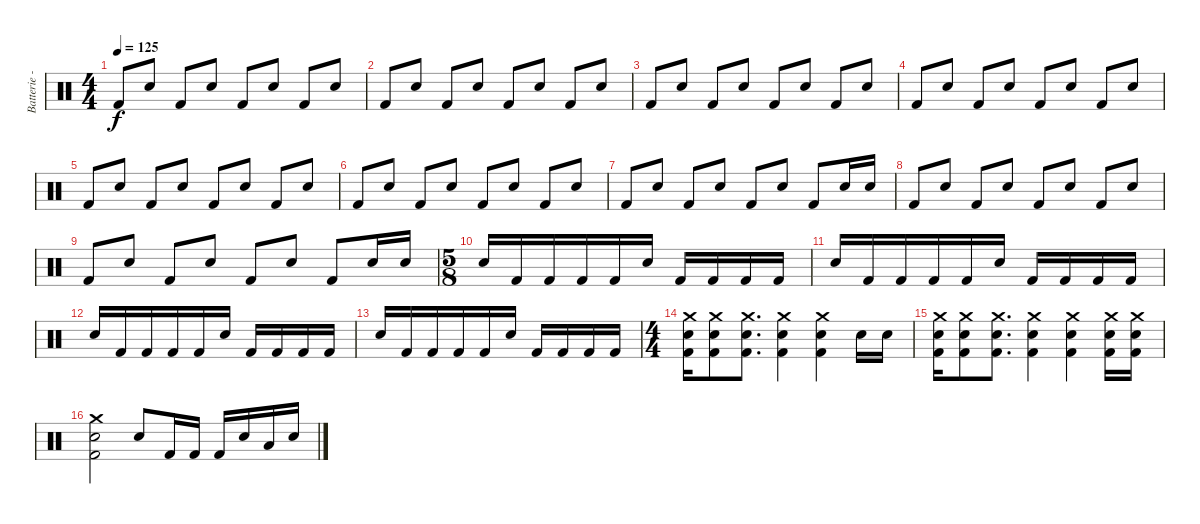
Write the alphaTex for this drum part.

\track ("Batterie - Shane Gaalaas" "Batterie -") {instrument percussion}
\staff {score}
\articulation defaults
\ts (4 4)
\tempo 125
\clef neutral
\ks c "Kick (hit) 2".8{dy f} "Electric Snare (hit)".8 "Kick (hit) 2".8 "Electric Snare (hit)".8 "Kick (hit) 2".8 "Electric Snare (hit)".8 "Kick (hit) 2".8 "Electric Snare (hit)".8
|
"Kick (hit) 2".8 "Electric Snare (hit)".8 "Kick (hit) 2".8 "Electric Snare (hit)".8 "Kick (hit) 2".8 "Electric Snare (hit)".8 "Kick (hit) 2".8 "Electric Snare (hit)".8 |
"Kick (hit) 2".8 "Electric Snare (hit)".8 "Kick (hit) 2".8 "Electric Snare (hit)".8 "Kick (hit) 2".8 "Electric Snare (hit)".8 "Kick (hit) 2".8 "Electric Snare (hit)".8 |
"Kick (hit) 2".8 "Electric Snare (hit)".8 "Kick (hit) 2".8 "Electric Snare (hit)".8 "Kick (hit) 2".8 "Electric Snare (hit)".8 "Kick (hit) 2".8 "Electric Snare (hit)".8 |
"Kick (hit) 2".8 "Electric Snare (hit)".8 "Kick (hit) 2".8 "Electric Snare (hit)".8 "Kick (hit) 2".8 "Electric Snare (hit)".8 "Kick (hit) 2".8 "Electric Snare (hit)".8 |
"Kick (hit) 2".8 "Electric Snare (hit)".8 "Kick (hit) 2".8 "Electric Snare (hit)".8 "Kick (hit) 2".8 "Electric Snare (hit)".8 "Kick (hit) 2".8 "Electric Snare (hit)".8 |
"Kick (hit) 2".8 "Electric Snare (hit)".8 "Kick (hit) 2".8 "Electric Snare (hit)".8 "Kick (hit) 2".8 "Electric Snare (hit)".8 "Kick (hit) 2".8 "Electric Snare (hit)".16 "Electric Snare (hit)".16 |
"Kick (hit) 2".8 "Electric Snare (hit)".8 "Kick (hit) 2".8 "Electric Snare (hit)".8 "Kick (hit) 2".8 "Electric Snare (hit)".8 "Kick (hit) 2".8 "Electric Snare (hit)".8 |
"Kick (hit) 2".8 "Electric Snare (hit)".8 "Kick (hit) 2".8 "Electric Snare (hit)".8 "Kick (hit) 2".8 "Electric Snare (hit)".8 "Kick (hit) 2".8 "Electric Snare (hit)".16 "Electric Snare (hit)".16 |
\ts (5 8)
"Electric Snare (hit)".16 "Kick (hit) 2".16 "Kick (hit) 2".16 "Kick (hit) 2".16 "Kick (hit) 2".16 "Electric Snare (hit)".16 "Kick (hit) 2".16 "Kick (hit) 2".16 "Kick (hit) 2".16 "Kick (hit) 2".16 |
"Electric Snare (hit)".16 "Kick (hit) 2".16 "Kick (hit) 2".16 "Kick (hit) 2".16 "Kick (hit) 2".16 "Electric Snare (hit)".16 "Kick (hit) 2".16 "Kick (hit) 2".16 "Kick (hit) 2".16 "Kick (hit) 2".16 |
"Electric Snare (hit)".16 "Kick (hit) 2".16 "Kick (hit) 2".16 "Kick (hit) 2".16 "Kick (hit) 2".16 "Electric Snare (hit)".16 "Kick (hit) 2".16 "Kick (hit) 2".16 "Kick (hit) 2".16 "Kick (hit) 2".16 |
"Electric Snare (hit)".16 "Kick (hit) 2".16 "Kick (hit) 2".16 "Kick (hit) 2".16 "Kick (hit) 2".16 "Electric Snare (hit)".16 "Kick (hit) 2".16 "Kick (hit) 2".16 "Kick (hit) 2".16 "Kick (hit) 2".16 |
\ts (4 4)
("Crash medium (hit)" "Electric Snare (hit)" "Kick (hit) 2").16 ("Crash medium (hit)" "Electric Snare (hit)" "Kick (hit) 2").8 ("Crash medium (hit)" "Electric Snare (hit)" "Kick (hit) 2").8{d} ("Crash medium (hit)" "Electric Snare (hit)" "Kick (hit) 2").4 ("Crash medium (hit)" "Electric Snare (hit)" "Kick (hit) 2").4 "Electric Snare (hit)".16 "Electric Snare (hit)".16 |
("Crash medium (hit)" "Electric Snare (hit)" "Kick (hit) 2").16 ("Crash medium (hit)" "Electric Snare (hit)" "Kick (hit) 2").8 ("Crash medium (hit)" "Electric Snare (hit)" "Kick (hit) 2").8{d} ("Crash medium (hit)" "Electric Snare (hit)" "Kick (hit) 2").4 ("Crash medium (hit)" "Electric Snare (hit)" "Kick (hit) 2").4 ("Crash medium (hit)" "Electric Snare (hit)" "Kick (hit) 2").16 ("Crash medium (hit)" "Electric Snare (hit)" "Kick (hit) 2").16 |
("Crash medium (hit)" "Electric Snare (hit)" "Kick (hit) 2").2 "Electric Snare (hit)".8 "Kick (hit) 2".16 "Kick (hit) 2".16 "Kick (hit) 2".16 "Electric Snare (hit)".16 "Low Tom (hit)".16 "Electric Snare (hit)".16
